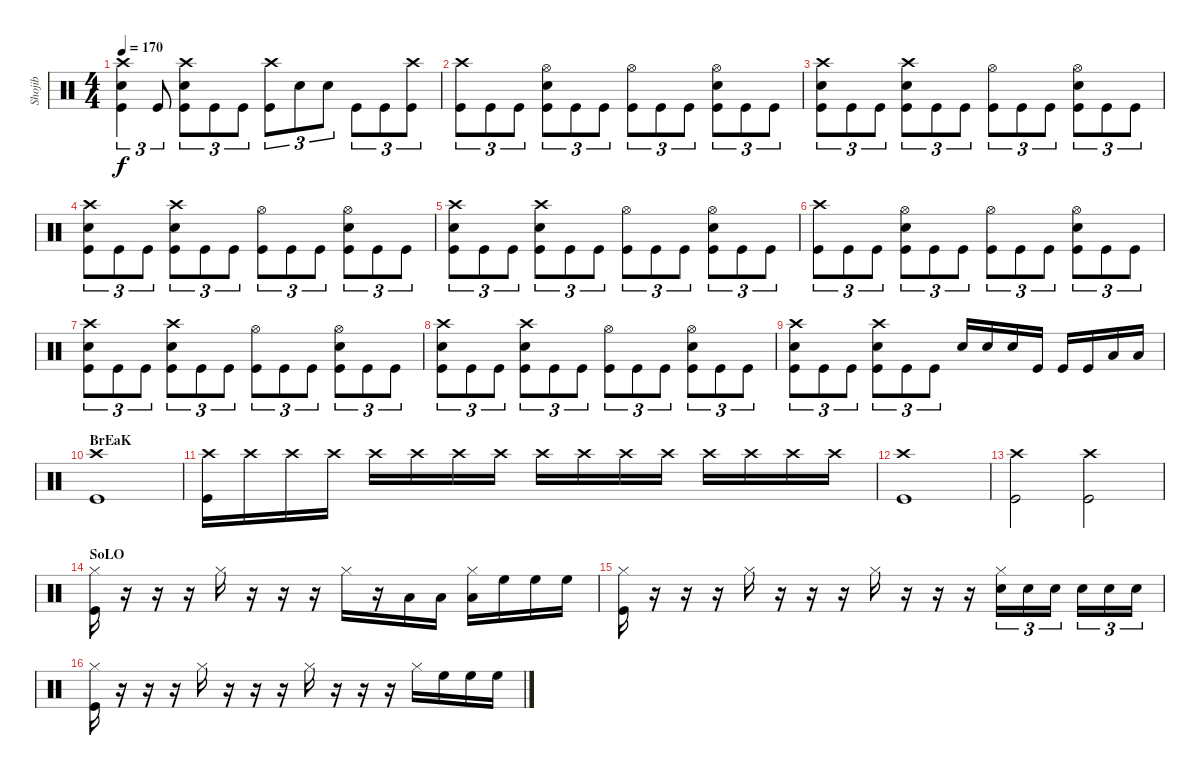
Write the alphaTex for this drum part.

\track ("Shojib" "Shojib") {instrument percussion}
\staff {score}
\articulation defaults
\ts (4 4)
\tempo 170
\clef neutral
\ks c
("Crash high (hit)" "Electric Snare (hit)" "Kick (hit)").4{tu (3 2) dy f} "Kick (hit)".8{tu (3 2)} ("Crash high (hit)" "Electric Snare (hit)" "Kick (hit)").8{tu (3 2)} "Kick (hit)".8{tu (3 2)} "Kick (hit)".8{tu (3 2)} ("Crash high (hit)" "Kick (hit)").8{tu (3 2)} "Electric Snare (hit)".8{tu (3 2)} "Electric Snare (hit)".8{tu (3 2)} "Kick (hit)".8{tu (3 2)} "Kick (hit)".8{tu (3 2)} ("Crash high (hit)" "Kick (hit)").8{tu (3 2)} |
("Crash high (hit)" "Kick (hit)").8{tu (3 2)} "Kick (hit)".8{tu (3 2)} "Kick (hit)".8{tu (3 2)} ("Hi-Hat (open)" "Electric Snare (hit)" "Kick (hit)").8{tu (3 2)} "Kick (hit)".8{tu (3 2)} "Kick (hit)".8{tu (3 2)} ("Hi-Hat (open)" "Kick (hit)").8{tu (3 2)} "Kick (hit)".8{tu (3 2)} "Kick (hit)".8{tu (3 2)} ("Hi-Hat (open)" "Electric Snare (hit)" "Kick (hit)").8{tu (3 2)} "Kick (hit)".8{tu (3 2)} "Kick (hit)".8{tu (3 2)} |
("Crash high (hit)" "Electric Snare (hit)" "Kick (hit)").8{tu (3 2)} "Kick (hit)".8{tu (3 2)} "Kick (hit)".8{tu (3 2)} ("Crash high (hit)" "Electric Snare (hit)" "Kick (hit)").8{tu (3 2)} "Kick (hit)".8{tu (3 2)} "Kick (hit)".8{tu (3 2)} ("Hi-Hat (open)" "Kick (hit)").8{tu (3 2)} "Kick (hit)".8{tu (3 2)} "Kick (hit)".8{tu (3 2)} ("Hi-Hat (open)" "Electric Snare (hit)" "Kick (hit)").8{tu (3 2)} "Kick (hit)".8{tu (3 2)} "Kick (hit)".8{tu (3 2)} |
("Crash high (hit)" "Electric Snare (hit)" "Kick (hit)").8{tu (3 2)} "Kick (hit)".8{tu (3 2)} "Kick (hit)".8{tu (3 2)} ("Crash high (hit)" "Electric Snare (hit)" "Kick (hit)").8{tu (3 2)} "Kick (hit)".8{tu (3 2)} "Kick (hit)".8{tu (3 2)} ("Hi-Hat (open)" "Kick (hit)").8{tu (3 2)} "Kick (hit)".8{tu (3 2)} "Kick (hit)".8{tu (3 2)} ("Hi-Hat (open)" "Electric Snare (hit)" "Kick (hit)").8{tu (3 2)} "Kick (hit)".8{tu (3 2)} "Kick (hit)".8{tu (3 2)} |
("Crash high (hit)" "Electric Snare (hit)" "Kick (hit)").8{tu (3 2)} "Kick (hit)".8{tu (3 2)} "Kick (hit)".8{tu (3 2)} ("Crash high (hit)" "Electric Snare (hit)" "Kick (hit)").8{tu (3 2)} "Kick (hit)".8{tu (3 2)} "Kick (hit)".8{tu (3 2)} ("Hi-Hat (open)" "Kick (hit)").8{tu (3 2)} "Kick (hit)".8{tu (3 2)} "Kick (hit)".8{tu (3 2)} ("Hi-Hat (open)" "Electric Snare (hit)" "Kick (hit)").8{tu (3 2)} "Kick (hit)".8{tu (3 2)} "Kick (hit)".8{tu (3 2)} |
("Crash high (hit)" "Kick (hit)").8{tu (3 2)} "Kick (hit)".8{tu (3 2)} "Kick (hit)".8{tu (3 2)} ("Hi-Hat (open)" "Electric Snare (hit)" "Kick (hit)").8{tu (3 2)} "Kick (hit)".8{tu (3 2)} "Kick (hit)".8{tu (3 2)} ("Hi-Hat (open)" "Kick (hit)").8{tu (3 2)} "Kick (hit)".8{tu (3 2)} "Kick (hit)".8{tu (3 2)} ("Hi-Hat (open)" "Electric Snare (hit)" "Kick (hit)").8{tu (3 2)} "Kick (hit)".8{tu (3 2)} "Kick (hit)".8{tu (3 2)} |
("Crash high (hit)" "Electric Snare (hit)" "Kick (hit)").8{tu (3 2)} "Kick (hit)".8{tu (3 2)} "Kick (hit)".8{tu (3 2)} ("Crash high (hit)" "Electric Snare (hit)" "Kick (hit)").8{tu (3 2)} "Kick (hit)".8{tu (3 2)} "Kick (hit)".8{tu (3 2)} ("Hi-Hat (open)" "Kick (hit)").8{tu (3 2)} "Kick (hit)".8{tu (3 2)} "Kick (hit)".8{tu (3 2)} ("Hi-Hat (open)" "Electric Snare (hit)" "Kick (hit)").8{tu (3 2)} "Kick (hit)".8{tu (3 2)} "Kick (hit)".8{tu (3 2)} |
("Crash high (hit)" "Electric Snare (hit)" "Kick (hit)").8{tu (3 2)} "Kick (hit)".8{tu (3 2)} "Kick (hit)".8{tu (3 2)} ("Crash high (hit)" "Electric Snare (hit)" "Kick (hit)").8{tu (3 2)} "Kick (hit)".8{tu (3 2)} "Kick (hit)".8{tu (3 2)} ("Hi-Hat (open)" "Kick (hit)").8{tu (3 2)} "Kick (hit)".8{tu (3 2)} "Kick (hit)".8{tu (3 2)} ("Hi-Hat (open)" "Electric Snare (hit)" "Kick (hit)").8{tu (3 2)} "Kick (hit)".8{tu (3 2)} "Kick (hit)".8{tu (3 2)} |
("Crash high (hit)" "Electric Snare (hit)" "Kick (hit)").8{tu (3 2)} "Kick (hit)".8{tu (3 2)} "Kick (hit)".8{tu (3 2)} ("Crash high (hit)" "Electric Snare (hit)" "Kick (hit)").8{tu (3 2)} "Kick (hit)".8{tu (3 2)} "Kick (hit)".8{tu (3 2)} "Electric Snare (hit)".16 "Electric Snare (hit)".16 "Electric Snare (hit)".16 "Kick (hit)".16 "Kick (hit)".16 "Kick (hit)".16 "Low Floor Tom (hit)".16 "Low Floor Tom (hit)".16 |
\section ("" "BrEaK")
("Crash high (hit)" "Kick (hit)").1 |
("Crash high (hit)" "Kick (hit)").16{volume 16} "Crash high (hit)".16 "Crash high (hit)".16 "Crash high (hit)".16 "Crash high (hit)".16{volume 15} "Crash high (hit)".16 "Crash high (hit)".16 "Crash high (hit)".16 "Crash high (hit)".16{volume 13} "Crash high (hit)".16 "Crash high (hit)".16 "Crash high (hit)".16 "Crash high (hit)".16{volume 12} "Crash high (hit)".16 "Crash high (hit)".16 "Crash high (hit)".16 |
("Crash high (hit)" "Kick (hit)").1{volume 16} |
("Crash high (hit)" "Kick (hit)").2 ("Crash high (hit)" "Kick (hit)").2 |
\section ("" "SoLO")
("Hi-Hat (closed)" "Kick (hit)").16 r.16 r.16 r.16 "Hi-Hat (closed)".16 r.16 r.16 r.16 "Hi-Hat (closed)".16 r.16 "Low Floor Tom (hit)".16 "Low Floor Tom (hit)".16 ("Hi-Hat (closed)" "Low Floor Tom (hit)").16 "High Floor Tom (hit)".16 "High Floor Tom (hit)".16 "High Floor Tom (hit)".16 |
("Hi-Hat (closed)" "Kick (hit)").16 r.16 r.16 r.16 "Hi-Hat (closed)".16 r.16 r.16 r.16 "Hi-Hat (closed)".16 r.16 r.16 r.16 ("Hi-Hat (closed)" "Electric Snare (hit)").16{tu (3 2)} "Electric Snare (hit)".16{tu (3 2)} "Electric Snare (hit)".16{tu (3 2)} "Electric Snare (hit)".16{tu (3 2)} "Electric Snare (hit)".16{tu (3 2)} "Electric Snare (hit)".16{tu (3 2)} |
("Hi-Hat (closed)" "Kick (hit)").16 r.16 r.16 r.16 "Hi-Hat (closed)".16 r.16 r.16 r.16 "Hi-Hat (closed)".16 r.16 r.16 r.16 "Hi-Hat (closed)".16 "High Floor Tom (hit)".16 "High Floor Tom (hit)".16 "High Floor Tom (hit)".16
